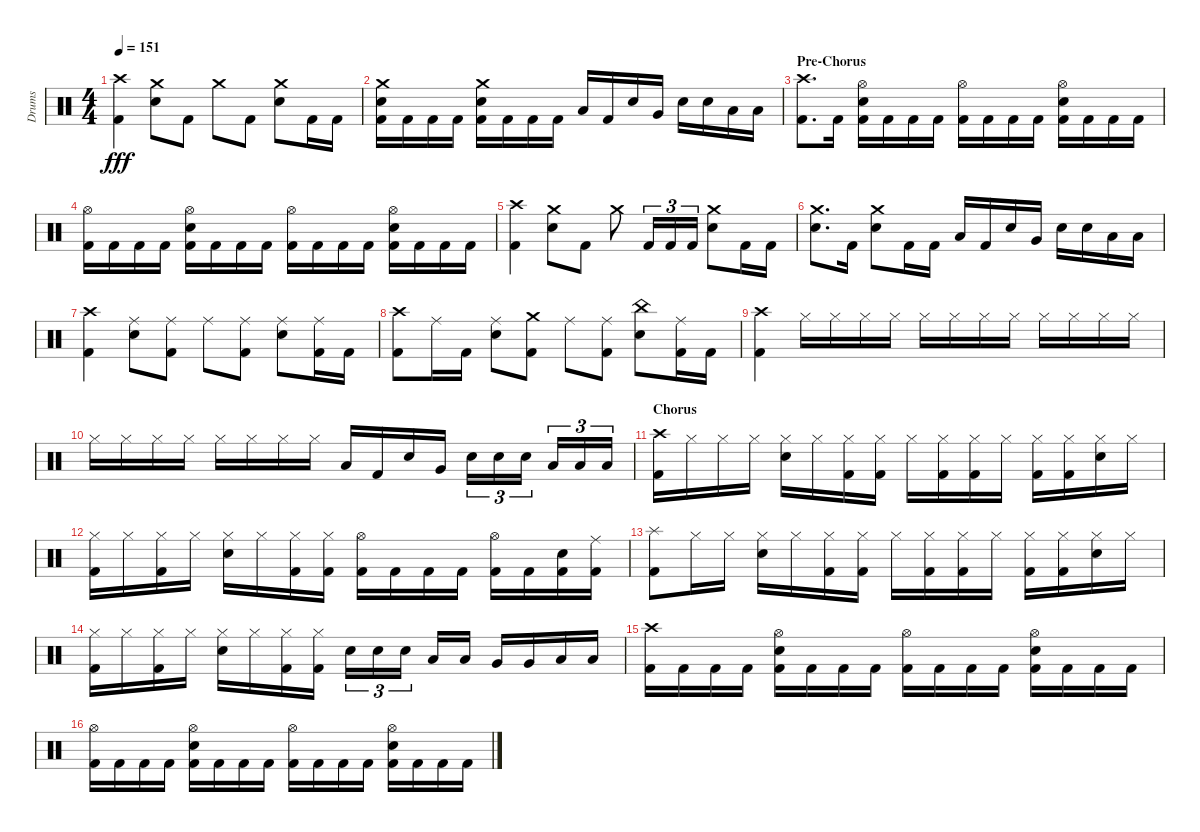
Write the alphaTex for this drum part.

\track ("Drums" "Drums") {instrument percussion}
\staff {score}
\articulation defaults
\ts (4 4)
\tempo 151
\clef neutral
\ks aminor
("Kick (hit) 2" "Crash high (hit)").4{dy fff} ("Snare (hit) 2" "Crash medium (hit)").8 "Kick (hit) 2".8 "Crash medium (hit)".8 "Kick (hit) 2".8 ("Snare (hit) 2" "Crash medium (hit)").8 "Kick (hit) 2".16 "Kick (hit) 2".16 |
("Kick (hit) 2" "Snare (hit) 2" "Crash medium (hit)").16 "Kick (hit) 2".16 "Kick (hit) 2".16 "Kick (hit) 2".16 ("Kick (hit) 2" "Snare (hit) 2" "Crash medium (hit)").16 "Kick (hit) 2".16 "Kick (hit) 2".16 "Kick (hit) 2".16 "Low Tom (hit)".16 "Kick (hit) 2".16 "Snare (hit) 2".16 "Very Low Tom (hit)".16 "Snare (hit) 2".16 "Snare (hit) 2".16 "Low Floor Tom (hit)".16 "Low Floor Tom (hit)".16 |
\section ("" "Pre-Chorus")
("Kick (hit) 2" "Crash high (hit)").8{d} "Kick (hit) 2".16 ("Kick (hit) 2" "Snare (hit) 2" "Hi-Hat (open)").16 "Kick (hit) 2".16 "Kick (hit) 2".16 "Kick (hit) 2".16 ("Kick (hit) 2" "Hi-Hat (open)").16 "Kick (hit) 2".16 "Kick (hit) 2".16 "Kick (hit) 2".16 ("Kick (hit) 2" "Snare (hit) 2" "Hi-Hat (open)").16 "Kick (hit) 2".16 "Kick (hit) 2".16 "Kick (hit) 2".16 |
("Kick (hit) 2" "Hi-Hat (open)").16 "Kick (hit) 2".16 "Kick (hit) 2".16 "Kick (hit) 2".16 ("Kick (hit) 2" "Snare (hit) 2" "Hi-Hat (open)").16 "Kick (hit) 2".16 "Kick (hit) 2".16 "Kick (hit) 2".16 ("Kick (hit) 2" "Hi-Hat (open)").16 "Kick (hit) 2".16 "Kick (hit) 2".16 "Kick (hit) 2".16 ("Kick (hit) 2" "Snare (hit) 2" "Hi-Hat (open)").16 "Kick (hit) 2".16 "Kick (hit) 2".16 "Kick (hit) 2".16 |
("Kick (hit) 2" "Crash high (hit)").4 ("Snare (hit) 2" "Crash medium (hit)").8 "Kick (hit) 2".8 "Crash medium (hit)".8 "Kick (hit) 2".16{tu (3 2)} "Kick (hit) 2".16{tu (3 2)} "Kick (hit) 2".16{tu (3 2)} ("Snare (hit) 2" "Crash medium (hit)").8 "Kick (hit) 2".16 "Kick (hit) 2".16 |
("Snare (hit) 2" "Crash medium (hit)").8{d} "Kick (hit) 2".16 ("Snare (hit) 2" "Crash medium (hit)").8 "Kick (hit) 2".16 "Kick (hit) 2".16 "Low Tom (hit)".16 "Kick (hit) 2".16 "Snare (hit) 2".16 "Very Low Tom (hit)".16 "Snare (hit) 2".16 "Snare (hit) 2".16 "Low Floor Tom (hit)".16 "Low Floor Tom (hit)".16 |
("Kick (hit) 2" "Crash high (hit)").4 ("Snare (hit) 2" "Ride (middle)").8 ("Kick (hit) 2" "Ride (middle)").8 "Ride (middle)".8 ("Kick (hit) 2" "Ride (middle)").8 ("Snare (hit) 2" "Ride (middle)").8 ("Kick (hit) 2" "Ride (middle)").16 "Kick (hit) 2".16 |
("Kick (hit) 2" "Crash high (hit)").8 "Ride (middle)".16 "Kick (hit) 2".16 ("Snare (hit) 2" "Ride (middle)").8 ("Kick (hit) 2" "Crash medium (hit)").8 "Ride (middle)".8 ("Kick (hit) 2" "Ride (middle)").8 ("Snare (hit) 2" "China (hit)").8 ("Kick (hit) 2" "Ride (middle)").16 "Kick (hit) 2".16 |
("Kick (hit) 2" "Crash high (hit)").4 "Hi-Hat (closed)".16 "Hi-Hat (closed)".16 "Hi-Hat (closed)".16 "Hi-Hat (closed)".16 "Hi-Hat (closed)".16 "Hi-Hat (closed)".16 "Hi-Hat (closed)".16 "Hi-Hat (closed)".16 "Hi-Hat (closed)".16 "Hi-Hat (closed)".16 "Hi-Hat (closed)".16 "Hi-Hat (closed)".16 |
"Hi-Hat (closed)".16 "Hi-Hat (closed)".16 "Hi-Hat (closed)".16 "Hi-Hat (closed)".16 "Hi-Hat (closed)".16 "Hi-Hat (closed)".16 "Hi-Hat (closed)".16 "Hi-Hat (closed)".16 "Low Tom (hit)".16 "Kick (hit) 2".16 "Snare (hit) 2".16 "Very Low Tom (hit)".16 "Snare (hit) 2".16{tu (3 2)} "Snare (hit) 2".16{tu (3 2)} "Snare (hit) 2".16{tu (3 2)} "Low Floor Tom (hit)".16{tu (3 2)} "Low Floor Tom (hit)".16{tu (3 2)} "Low Floor Tom (hit)".16{tu (3 2)} |
\section ("" "Chorus")
("Kick (hit) 2" "Crash high (hit)").16 "Hi-Hat (closed)".16 "Hi-Hat (closed)".16 "Hi-Hat (closed)".16 ("Snare (hit) 2" "Hi-Hat (closed)").16 "Hi-Hat (closed)".16 ("Kick (hit) 2" "Hi-Hat (closed)").16 ("Kick (hit) 2" "Hi-Hat (closed)").16 "Hi-Hat (closed)".16 ("Kick (hit) 2" "Hi-Hat (closed)").16 ("Kick (hit) 2" "Hi-Hat (closed)").16 "Hi-Hat (closed)".16 ("Kick (hit) 2" "Hi-Hat (closed)").16 ("Kick (hit) 2" "Hi-Hat (closed)").16 ("Snare (hit) 2" "Hi-Hat (closed)").16 "Hi-Hat (closed)".16 |
("Kick (hit) 2" "Hi-Hat (closed)").16 "Hi-Hat (closed)".16 ("Kick (hit) 2" "Hi-Hat (closed)").16 "Hi-Hat (closed)".16 ("Snare (hit) 2" "Hi-Hat (closed)").16 "Hi-Hat (closed)".16 ("Kick (hit) 2" "Hi-Hat (closed)").16 ("Kick (hit) 2" "Hi-Hat (closed)").16 ("Kick (hit) 2" "Hi-Hat (open)").16 "Kick (hit) 2".16 "Kick (hit) 2".16 "Kick (hit) 2".16 ("Kick (hit) 2" "Hi-Hat (open)").16 "Kick (hit) 2".16 ("Kick (hit) 2" "Snare (hit) 2").16 ("Kick (hit) 2" "Ride (middle)").16 |
("Kick (hit) 2" "Splash (hit)").8 "Hi-Hat (closed)".16 "Hi-Hat (closed)".16 ("Snare (hit) 2" "Hi-Hat (closed)").16 "Hi-Hat (closed)".16 ("Kick (hit) 2" "Hi-Hat (closed)").16 ("Kick (hit) 2" "Hi-Hat (closed)").16 "Hi-Hat (closed)".16 ("Kick (hit) 2" "Hi-Hat (closed)").16 ("Kick (hit) 2" "Hi-Hat (closed)").16 "Hi-Hat (closed)".16 ("Kick (hit) 2" "Hi-Hat (closed)").16 ("Kick (hit) 2" "Hi-Hat (closed)").16 ("Snare (hit) 2" "Hi-Hat (closed)").16 "Hi-Hat (closed)".16 |
("Kick (hit) 2" "Hi-Hat (closed)").16 "Hi-Hat (closed)".16 ("Kick (hit) 2" "Hi-Hat (closed)").16 "Hi-Hat (closed)".16 ("Snare (hit) 2" "Hi-Hat (closed)").16 "Hi-Hat (closed)".16 ("Kick (hit) 2" "Hi-Hat (closed)").16 ("Kick (hit) 2" "Hi-Hat (closed)").16 "Snare (hit) 2".16{tu (3 2)} "Snare (hit) 2".16{tu (3 2)} "Snare (hit) 2".16{tu (3 2)} "Low Tom (hit)".16 "Low Tom (hit)".16 "Very Low Tom (hit)".16 "Very Low Tom (hit)".16 "Low Floor Tom (hit)".16 "Low Floor Tom (hit)".16 |
("Kick (hit) 2" "Crash high (hit)").16 "Kick (hit) 2".16 "Kick (hit) 2".16 "Kick (hit) 2".16 ("Kick (hit) 2" "Snare (hit) 2" "Hi-Hat (open)").16 "Kick (hit) 2".16 "Kick (hit) 2".16 "Kick (hit) 2".16 ("Kick (hit) 2" "Hi-Hat (open)").16 "Kick (hit) 2".16 "Kick (hit) 2".16 "Kick (hit) 2".16 ("Kick (hit) 2" "Snare (hit) 2" "Hi-Hat (open)").16 "Kick (hit) 2".16 "Kick (hit) 2".16 "Kick (hit) 2".16 |
("Kick (hit) 2" "Hi-Hat (open)").16 "Kick (hit) 2".16 "Kick (hit) 2".16 "Kick (hit) 2".16 ("Kick (hit) 2" "Snare (hit) 2" "Hi-Hat (open)").16 "Kick (hit) 2".16 "Kick (hit) 2".16 "Kick (hit) 2".16 ("Kick (hit) 2" "Hi-Hat (open)").16 "Kick (hit) 2".16 "Kick (hit) 2".16 "Kick (hit) 2".16 ("Kick (hit) 2" "Snare (hit) 2" "Hi-Hat (open)").16 "Kick (hit) 2".16 "Kick (hit) 2".16 "Kick (hit) 2".16
